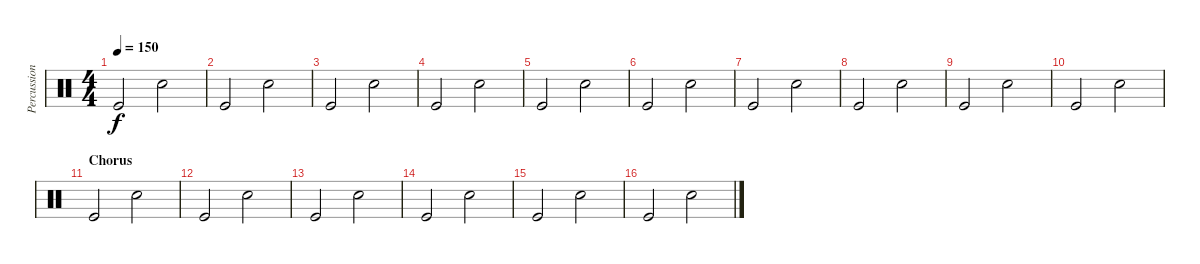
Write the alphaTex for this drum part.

\track ("Percussions" "Percussion") {instrument percussion}
\staff {score}
\articulation defaults
\ts (4 4)
\tempo 150
\clef neutral
\ks c "Kick (hit)".2{dy f} "Electric Snare (hit)".2
|
"Kick (hit)".2 "Electric Snare (hit)".2 |
"Kick (hit)".2 "Electric Snare (hit)".2 |
"Kick (hit)".2 "Electric Snare (hit)".2 |
"Kick (hit)".2 "Electric Snare (hit)".2 |
"Kick (hit)".2 "Electric Snare (hit)".2 |
"Kick (hit)".2 "Electric Snare (hit)".2 |
"Kick (hit)".2 "Electric Snare (hit)".2 |
"Kick (hit)".2 "Electric Snare (hit)".2 |
"Kick (hit)".2 "Electric Snare (hit)".2 |
\section ("" "Chorus")
"Kick (hit)".2 "Electric Snare (hit)".2 |
"Kick (hit)".2 "Electric Snare (hit)".2 |
"Kick (hit)".2 "Electric Snare (hit)".2 |
"Kick (hit)".2 "Electric Snare (hit)".2 |
"Kick (hit)".2 "Electric Snare (hit)".2 |
"Kick (hit)".2 "Electric Snare (hit)".2
